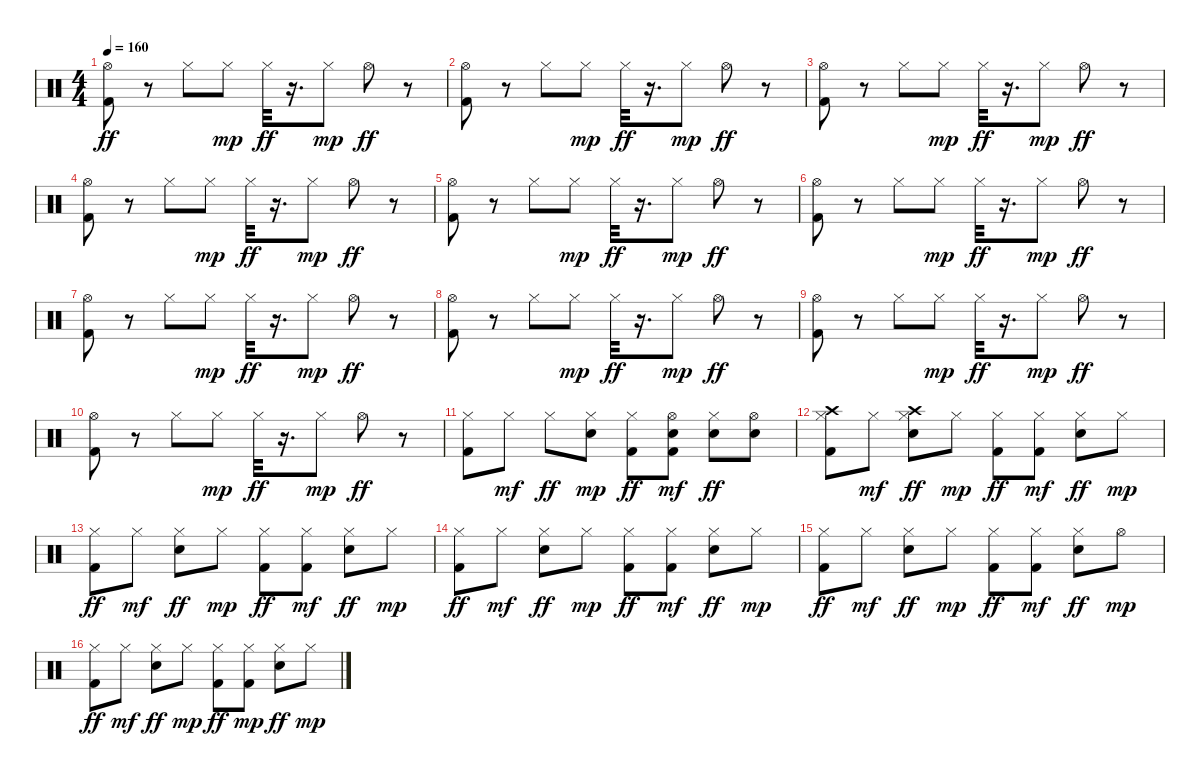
\track "" {instrument percussion}
\staff {score}
\articulation defaults
\ts (4 4)
\tempo 160
\clef neutral
\ks c
("Hi-Hat (open)" "Kick (hit) 2").8{dy ff} r.8 "Hi-Hat (closed)".8 "Hi-Hat (closed)".8{dy mp} "Hi-Hat (closed)".32{dy ff} r.16{d} "Hi-Hat (closed)".8{dy mp} "Hi-Hat (open)".8{dy ff} r.8 |
("Hi-Hat (open)" "Kick (hit) 2").8 r.8 "Hi-Hat (closed)".8 "Hi-Hat (closed)".8{dy mp} "Hi-Hat (closed)".32{dy ff} r.16{d} "Hi-Hat (closed)".8{dy mp} "Hi-Hat (open)".8{dy ff} r.8 |
("Hi-Hat (open)" "Kick (hit) 2").8 r.8 "Hi-Hat (closed)".8 "Hi-Hat (closed)".8{dy mp} "Hi-Hat (closed)".32{dy ff} r.16{d} "Hi-Hat (closed)".8{dy mp} "Hi-Hat (open)".8{dy ff} r.8 |
("Hi-Hat (open)" "Kick (hit) 2").8 r.8 "Hi-Hat (closed)".8 "Hi-Hat (closed)".8{dy mp} "Hi-Hat (closed)".32{dy ff} r.16{d} "Hi-Hat (closed)".8{dy mp} "Hi-Hat (open)".8{dy ff} r.8 |
("Hi-Hat (open)" "Kick (hit) 2").8 r.8 "Hi-Hat (closed)".8 "Hi-Hat (closed)".8{dy mp} "Hi-Hat (closed)".32{dy ff} r.16{d} "Hi-Hat (closed)".8{dy mp} "Hi-Hat (open)".8{dy ff} r.8 |
("Hi-Hat (open)" "Kick (hit) 2").8 r.8 "Hi-Hat (closed)".8 "Hi-Hat (closed)".8{dy mp} "Hi-Hat (closed)".32{dy ff} r.16{d} "Hi-Hat (closed)".8{dy mp} "Hi-Hat (open)".8{dy ff} r.8 |
("Hi-Hat (open)" "Kick (hit) 2").8 r.8 "Hi-Hat (closed)".8 "Hi-Hat (closed)".8{dy mp} "Hi-Hat (closed)".32{dy ff} r.16{d} "Hi-Hat (closed)".8{dy mp} "Hi-Hat (open)".8{dy ff} r.8 |
("Hi-Hat (open)" "Kick (hit) 2").8 r.8 "Hi-Hat (closed)".8 "Hi-Hat (closed)".8{dy mp} "Hi-Hat (closed)".32{dy ff} r.16{d} "Hi-Hat (closed)".8{dy mp} "Hi-Hat (open)".8{dy ff} r.8 |
("Hi-Hat (open)" "Kick (hit) 2").8 r.8 "Hi-Hat (closed)".8 "Hi-Hat (closed)".8{dy mp} "Hi-Hat (closed)".32{dy ff} r.16{d} "Hi-Hat (closed)".8{dy mp} "Hi-Hat (open)".8{dy ff} r.8 |
("Hi-Hat (open)" "Kick (hit) 2").8 r.8 "Hi-Hat (closed)".8 "Hi-Hat (closed)".8{dy mp} "Hi-Hat (closed)".32{dy ff} r.16{d} "Hi-Hat (closed)".8{dy mp} "Hi-Hat (open)".8{dy ff} r.8 |
("Hi-Hat (closed)" "Kick (hit) 2").8 "Hi-Hat (closed)".8{dy mf} "Hi-Hat (closed)".8{dy ff} ("Snare (hit) 2" "Hi-Hat (closed)").8{dy mp} ("Hi-Hat (closed)" "Kick (hit) 2").8{dy ff} ("Hi-Hat (open)" "Snare (hit) 2" "Kick (hit) 2").8{dy mf} ("Hi-Hat (closed)" "Snare (hit) 2").8{dy ff} ("Hi-Hat (open)" "Snare (hit) 2").8 |
("Kick (hit) 2" "Hi-Hat (closed)" "Crash high (hit)").8 "Hi-Hat (closed)".8{dy mf} ("Crash high (hit)" "Snare (hit) 2" "Hi-Hat (closed)").8{dy ff} "Hi-Hat (closed)".8{dy mp} ("Kick (hit) 2" "Hi-Hat (closed)").8{dy ff} ("Hi-Hat (closed)" "Kick (hit) 2").8{dy mf} ("Snare (hit) 2" "Hi-Hat (closed)").8{dy ff} "Hi-Hat (closed)".8{dy mp} |
("Hi-Hat (closed)" "Kick (hit) 2").8{dy ff} "Hi-Hat (closed)".8{dy mf} ("Snare (hit) 2" "Hi-Hat (closed)").8{dy ff} "Hi-Hat (closed)".8{dy mp} ("Hi-Hat (closed)" "Kick (hit) 2").8{dy ff} ("Hi-Hat (closed)" "Kick (hit) 2").8{dy mf} ("Hi-Hat (closed)" "Snare (hit) 2").8{dy ff} "Hi-Hat (closed)".8{dy mp} |
("Hi-Hat (closed)" "Kick (hit) 2").8{dy ff} "Hi-Hat (closed)".8{dy mf} ("Snare (hit) 2" "Hi-Hat (closed)").8{dy ff} "Hi-Hat (closed)".8{dy mp} ("Hi-Hat (closed)" "Kick (hit) 2").8{dy ff} ("Hi-Hat (closed)" "Kick (hit) 2").8{dy mf} ("Hi-Hat (closed)" "Snare (hit) 2").8{dy ff} "Hi-Hat (closed)".8{dy mp} |
("Hi-Hat (closed)" "Kick (hit) 2").8{dy ff} "Hi-Hat (closed)".8{dy mf} ("Snare (hit) 2" "Hi-Hat (closed)").8{dy ff} "Hi-Hat (closed)".8{dy mp} ("Hi-Hat (closed)" "Kick (hit) 2").8{dy ff} ("Hi-Hat (closed)" "Kick (hit) 2").8{dy mf} ("Hi-Hat (closed)" "Snare (hit) 2").8{dy ff} "Hi-Hat (open)".8{dy mp} |
("Kick (hit) 2" "Hi-Hat (closed)").8{dy ff} "Hi-Hat (closed)".8{dy mf} ("Snare (hit) 2" "Hi-Hat (closed)").8{dy ff} "Hi-Hat (closed)".8{dy mp} ("Hi-Hat (closed)" "Kick (hit) 2").8{dy ff} ("Kick (hit) 2" "Hi-Hat (closed)").8{dy mp} ("Hi-Hat (closed)" "Snare (hit) 2").8{dy ff} "Hi-Hat (closed)".8{dy mp}
